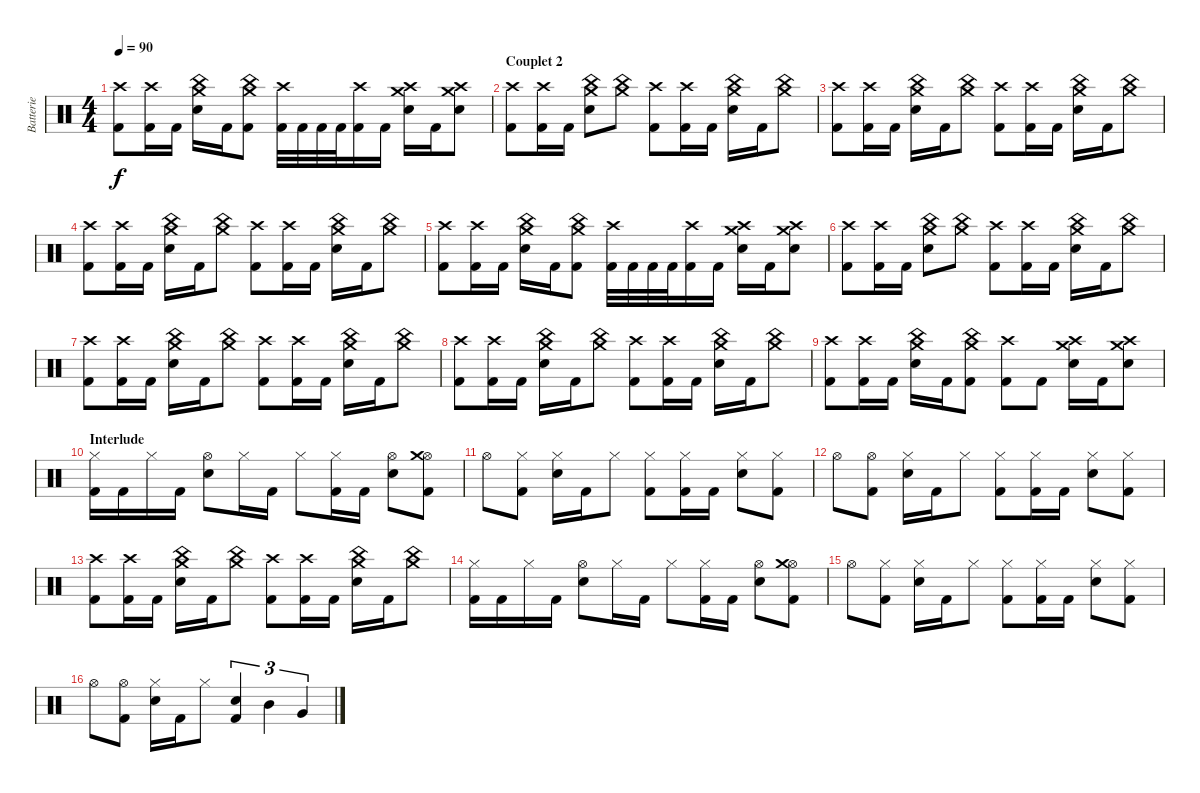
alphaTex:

\track ("Batterie" "Batterie") {instrument percussion}
\staff {score}
\articulation defaults
\ts (4 4)
\tempo 90
\clef neutral
\ks c
("Crash high (hit)" "Kick (hit) 2").8{dy f} ("Crash high (hit)" "Kick (hit) 2").16 "Kick (hit) 2".16 ("China (hit)" "Crash medium (hit)" "Snare (hit) 2").16 "Kick (hit) 2".16 ("China (hit)" "Crash medium (hit)" "Kick (hit) 2").8 ("Crash high (hit)" "Kick (hit) 2").32 "Kick (hit) 2".32 "Kick (hit) 2".32 "Kick (hit) 2".32 ("Crash high (hit)" "Kick (hit) 2").16 "Kick (hit) 2".16 ("Crash high (hit)" "Crash medium (hit)" "Snare (hit) 2").16 "Kick (hit) 2".16 ("Crash high (hit)" "Crash medium (hit)" "Snare (hit) 2").8 |
\section ("" "Couplet 2")
("Crash high (hit)" "Kick (hit) 2").8 ("Crash high (hit)" "Kick (hit) 2").16 "Kick (hit) 2".16 ("China (hit)" "Crash medium (hit)" "Snare (hit) 2").8 ("China (hit)" "Crash medium (hit)").8 ("Crash high (hit)" "Kick (hit) 2").8 ("Crash high (hit)" "Kick (hit) 2").16 "Kick (hit) 2".16 ("China (hit)" "Crash medium (hit)" "Snare (hit) 2").16 "Kick (hit) 2".16 ("China (hit)" "Crash medium (hit)").8 |
("Crash high (hit)" "Kick (hit) 2").8 ("Crash high (hit)" "Kick (hit) 2").16 "Kick (hit) 2".16 ("China (hit)" "Crash medium (hit)" "Snare (hit) 2").16 "Kick (hit) 2".16 ("China (hit)" "Crash medium (hit)").8 ("Crash high (hit)" "Kick (hit) 2").8 ("Crash high (hit)" "Kick (hit) 2").16 "Kick (hit) 2".16 ("China (hit)" "Crash medium (hit)" "Snare (hit) 2").16 "Kick (hit) 2".16 ("China (hit)" "Crash medium (hit)").8 |
("Crash high (hit)" "Kick (hit) 2").8 ("Crash high (hit)" "Kick (hit) 2").16 "Kick (hit) 2".16 ("China (hit)" "Crash medium (hit)" "Snare (hit) 2").16 "Kick (hit) 2".16 ("China (hit)" "Crash medium (hit)").8 ("Crash high (hit)" "Kick (hit) 2").8 ("Crash high (hit)" "Kick (hit) 2").16 "Kick (hit) 2".16 ("China (hit)" "Crash medium (hit)" "Snare (hit) 2").16 "Kick (hit) 2".16 ("China (hit)" "Crash medium (hit)").8 |
("Crash high (hit)" "Kick (hit) 2").8 ("Crash high (hit)" "Kick (hit) 2").16 "Kick (hit) 2".16 ("China (hit)" "Crash medium (hit)" "Snare (hit) 2").16 "Kick (hit) 2".16 ("China (hit)" "Crash medium (hit)" "Kick (hit) 2").8 ("Crash high (hit)" "Kick (hit) 2").32 "Kick (hit) 2".32 "Kick (hit) 2".32 "Kick (hit) 2".32 ("Crash high (hit)" "Kick (hit) 2").16 "Kick (hit) 2".16 ("Crash high (hit)" "Crash medium (hit)" "Snare (hit) 2").16 "Kick (hit) 2".16 ("Crash high (hit)" "Crash medium (hit)" "Snare (hit) 2").8 |
("Crash high (hit)" "Kick (hit) 2").8 ("Crash high (hit)" "Kick (hit) 2").16 "Kick (hit) 2".16 ("China (hit)" "Crash medium (hit)" "Snare (hit) 2").8 ("China (hit)" "Crash medium (hit)").8 ("Crash high (hit)" "Kick (hit) 2").8 ("Crash high (hit)" "Kick (hit) 2").16 "Kick (hit) 2".16 ("China (hit)" "Crash medium (hit)" "Snare (hit) 2").16 "Kick (hit) 2".16 ("China (hit)" "Crash medium (hit)").8 |
("Crash high (hit)" "Kick (hit) 2").8 ("Crash high (hit)" "Kick (hit) 2").16 "Kick (hit) 2".16 ("China (hit)" "Crash medium (hit)" "Snare (hit) 2").16 "Kick (hit) 2".16 ("China (hit)" "Crash medium (hit)").8 ("Crash high (hit)" "Kick (hit) 2").8 ("Crash high (hit)" "Kick (hit) 2").16 "Kick (hit) 2".16 ("China (hit)" "Crash medium (hit)" "Snare (hit) 2").16 "Kick (hit) 2".16 ("China (hit)" "Crash medium (hit)").8 |
("Crash high (hit)" "Kick (hit) 2").8 ("Crash high (hit)" "Kick (hit) 2").16 "Kick (hit) 2".16 ("China (hit)" "Crash medium (hit)" "Snare (hit) 2").16 "Kick (hit) 2".16 ("China (hit)" "Crash medium (hit)").8 ("Crash high (hit)" "Kick (hit) 2").8 ("Crash high (hit)" "Kick (hit) 2").16 "Kick (hit) 2".16 ("China (hit)" "Crash medium (hit)" "Snare (hit) 2").16 "Kick (hit) 2".16 ("China (hit)" "Crash medium (hit)").8 |
("Crash high (hit)" "Kick (hit) 2").8 ("Crash high (hit)" "Kick (hit) 2").16 "Kick (hit) 2".16 ("China (hit)" "Crash medium (hit)" "Snare (hit) 2").16 "Kick (hit) 2".16 ("China (hit)" "Crash medium (hit)" "Kick (hit) 2").8 ("Crash high (hit)" "Kick (hit) 2").8 "Kick (hit) 2".8 ("Crash high (hit)" "Crash medium (hit)" "Snare (hit) 2").16 "Kick (hit) 2".16 ("Crash high (hit)" "Crash medium (hit)" "Snare (hit) 2").8 |
\section ("" "Interlude")
("Hi-Hat (closed)" "Kick (hit) 2").16 "Kick (hit) 2".16 "Hi-Hat (closed)".16 "Kick (hit) 2".16 ("Hi-Hat (open)" "Electric Snare (hit)").8 "Hi-Hat (closed)".16 "Kick (hit) 2".16 "Hi-Hat (closed)".8 ("Hi-Hat (closed)" "Kick (hit) 2").16 "Kick (hit) 2".16 ("Hi-Hat (open)" "Electric Snare (hit)").8 ("Hi-Hat (open)" "Crash medium (hit)" "Kick (hit) 2").8 |
"Hi-Hat (open)".8 ("Hi-Hat (closed)" "Kick (hit) 2").8 ("Hi-Hat (closed)" "Electric Snare (hit)").16 "Kick (hit) 2".16 "Hi-Hat (closed)".8 ("Hi-Hat (closed)" "Kick (hit) 2").8 ("Hi-Hat (closed)" "Kick (hit) 2").16 "Kick (hit) 2".16 ("Hi-Hat (closed)" "Electric Snare (hit)").8 ("Hi-Hat (closed)" "Kick (hit) 2").8 |
"Hi-Hat (open)".8 ("Hi-Hat (open)" "Kick (hit) 2").8 ("Hi-Hat (closed)" "Electric Snare (hit)").16 "Kick (hit) 2".16 "Hi-Hat (closed)".8 ("Hi-Hat (closed)" "Kick (hit) 2").8 ("Hi-Hat (closed)" "Kick (hit) 2").16 "Kick (hit) 2".16 ("Hi-Hat (closed)" "Electric Snare (hit)").8 ("Hi-Hat (closed)" "Kick (hit) 2").8 |
("Crash high (hit)" "Kick (hit) 2").8 ("Crash high (hit)" "Kick (hit) 2").16 "Kick (hit) 2".16 ("China (hit)" "Crash medium (hit)" "Snare (hit) 2").16 "Kick (hit) 2".16 ("China (hit)" "Crash medium (hit)").8 ("Crash high (hit)" "Kick (hit) 2").8 ("Crash high (hit)" "Kick (hit) 2").16 "Kick (hit) 2".16 ("China (hit)" "Crash medium (hit)" "Snare (hit) 2").16 "Kick (hit) 2".16 ("China (hit)" "Crash medium (hit)").8 |
("Hi-Hat (closed)" "Kick (hit) 2").16 "Kick (hit) 2".16 "Hi-Hat (closed)".16 "Kick (hit) 2".16 ("Hi-Hat (open)" "Electric Snare (hit)").8 "Hi-Hat (closed)".16 "Kick (hit) 2".16 "Hi-Hat (closed)".8 ("Hi-Hat (closed)" "Kick (hit) 2").16 "Kick (hit) 2".16 ("Hi-Hat (open)" "Electric Snare (hit)").8 ("Hi-Hat (open)" "Crash medium (hit)" "Kick (hit) 2").8 |
"Hi-Hat (open)".8 ("Hi-Hat (closed)" "Kick (hit) 2").8 ("Hi-Hat (closed)" "Electric Snare (hit)").16 "Kick (hit) 2".16 "Hi-Hat (closed)".8 ("Hi-Hat (closed)" "Kick (hit) 2").8 ("Hi-Hat (closed)" "Kick (hit) 2").16 "Kick (hit) 2".16 ("Hi-Hat (closed)" "Electric Snare (hit)").8 ("Hi-Hat (closed)" "Kick (hit) 2").8 |
"Hi-Hat (open)".8 ("Hi-Hat (open)" "Kick (hit) 2").8 ("Hi-Hat (closed)" "Electric Snare (hit)").16 "Kick (hit) 2".16 "Hi-Hat (closed)".8 ("Electric Snare (hit)" "Kick (hit) 2").4{tu (3 2)} "Mid Tom (hit)".4{tu (3 2)} "Very Low Tom (hit)".4{tu (3 2)}
